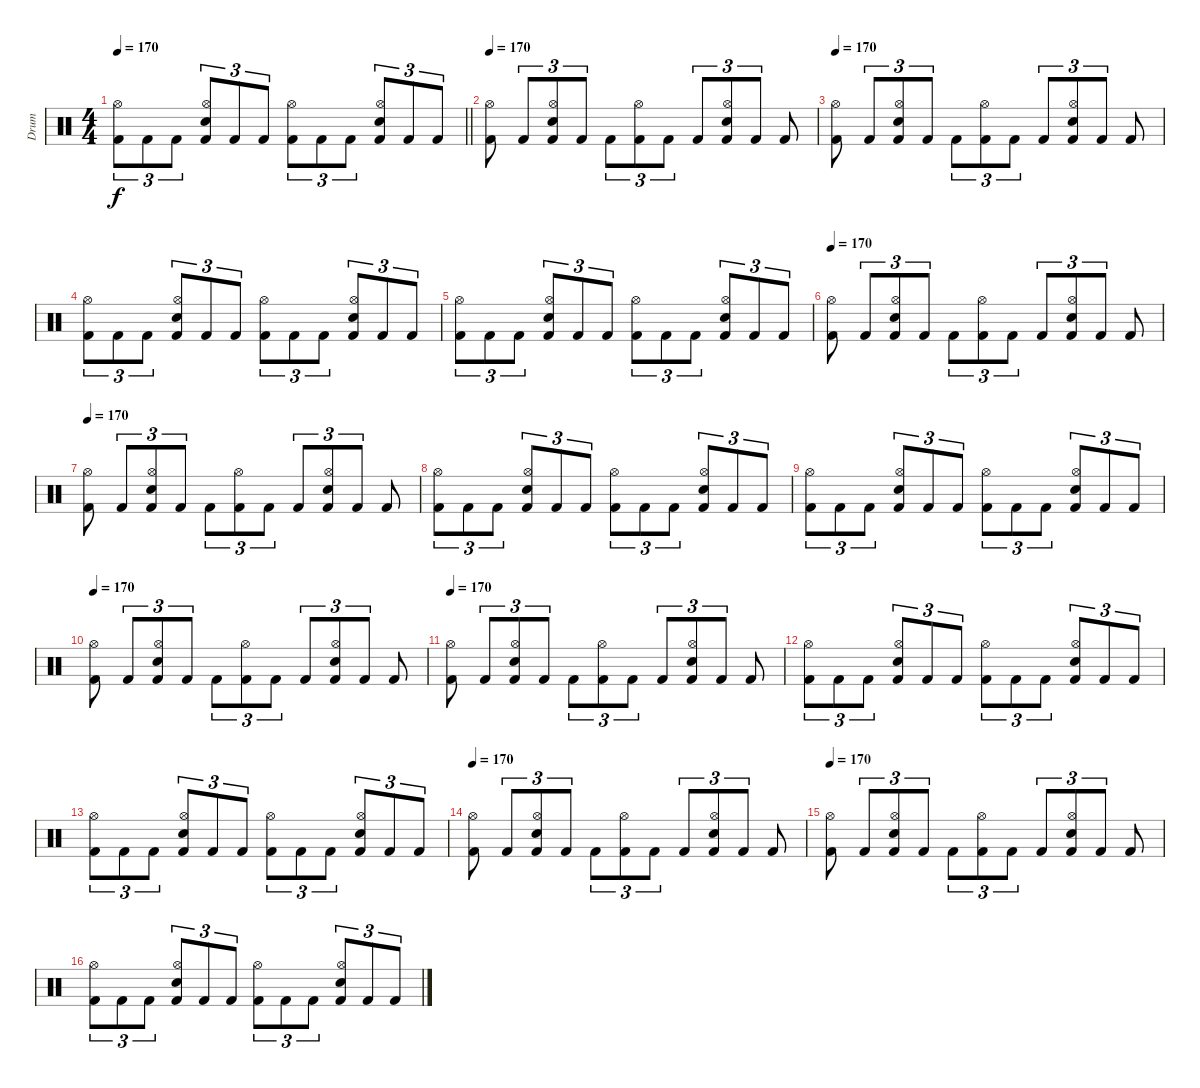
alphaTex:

\track ("Drum" "Drum") {instrument percussion}
\staff {score}
\articulation defaults
\ts (4 4)
\tempo 170
\clef neutral
\barLineRight lightlight
\ks c
("Kick (hit) 2" "Hi-Hat (open)").8{tu (3 2) dy f} "Kick (hit) 2".8{tu (3 2)} "Kick (hit) 2".8{tu (3 2)} ("Kick (hit) 2" "Electric Snare (hit)" "Hi-Hat (open)").8{tu (3 2)} "Kick (hit) 2".8{tu (3 2)} "Kick (hit) 2".8{tu (3 2)} ("Kick (hit) 2" "Hi-Hat (open)").8{tu (3 2)} "Kick (hit) 2".8{tu (3 2)} "Kick (hit) 2".8{tu (3 2)} ("Kick (hit) 2" "Electric Snare (hit)" "Hi-Hat (open)").8{tu (3 2)} "Kick (hit) 2".8{tu (3 2)} "Kick (hit) 2".8{tu (3 2)} |
\tempo 170
("Kick (hit) 2" "Hi-Hat (open)").8 "Kick (hit) 2".8{tu (3 2)} ("Kick (hit) 2" "Electric Snare (hit)" "Hi-Hat (open)").8{tu (3 2)} "Kick (hit) 2".8{tu (3 2)} "Kick (hit) 2".8{tu (3 2)} ("Kick (hit) 2" "Hi-Hat (open)").8{tu (3 2)} "Kick (hit) 2".8{tu (3 2)} "Kick (hit) 2".8{tu (3 2)} ("Kick (hit) 2" "Electric Snare (hit)" "Hi-Hat (open)").8{tu (3 2)} "Kick (hit) 2".8{tu (3 2)} "Kick (hit) 2".8 |
\tempo 170
("Kick (hit) 2" "Hi-Hat (open)").8 "Kick (hit) 2".8{tu (3 2)} ("Kick (hit) 2" "Electric Snare (hit)" "Hi-Hat (open)").8{tu (3 2)} "Kick (hit) 2".8{tu (3 2)} "Kick (hit) 2".8{tu (3 2)} ("Kick (hit) 2" "Hi-Hat (open)").8{tu (3 2)} "Kick (hit) 2".8{tu (3 2)} "Kick (hit) 2".8{tu (3 2)} ("Kick (hit) 2" "Electric Snare (hit)" "Hi-Hat (open)").8{tu (3 2)} "Kick (hit) 2".8{tu (3 2)} "Kick (hit) 2".8 |
("Kick (hit) 2" "Hi-Hat (open)").8{tu (3 2)} "Kick (hit) 2".8{tu (3 2)} "Kick (hit) 2".8{tu (3 2)} ("Kick (hit) 2" "Electric Snare (hit)" "Hi-Hat (open)").8{tu (3 2)} "Kick (hit) 2".8{tu (3 2)} "Kick (hit) 2".8{tu (3 2)} ("Kick (hit) 2" "Hi-Hat (open)").8{tu (3 2)} "Kick (hit) 2".8{tu (3 2)} "Kick (hit) 2".8{tu (3 2)} ("Kick (hit) 2" "Electric Snare (hit)" "Hi-Hat (open)").8{tu (3 2)} "Kick (hit) 2".8{tu (3 2)} "Kick (hit) 2".8{tu (3 2)} |
("Kick (hit) 2" "Hi-Hat (open)").8{tu (3 2)} "Kick (hit) 2".8{tu (3 2)} "Kick (hit) 2".8{tu (3 2)} ("Kick (hit) 2" "Electric Snare (hit)" "Hi-Hat (open)").8{tu (3 2)} "Kick (hit) 2".8{tu (3 2)} "Kick (hit) 2".8{tu (3 2)} ("Kick (hit) 2" "Hi-Hat (open)").8{tu (3 2)} "Kick (hit) 2".8{tu (3 2)} "Kick (hit) 2".8{tu (3 2)} ("Kick (hit) 2" "Electric Snare (hit)" "Hi-Hat (open)").8{tu (3 2)} "Kick (hit) 2".8{tu (3 2)} "Kick (hit) 2".8{tu (3 2)} |
\tempo 170
("Kick (hit) 2" "Hi-Hat (open)").8 "Kick (hit) 2".8{tu (3 2)} ("Kick (hit) 2" "Electric Snare (hit)" "Hi-Hat (open)").8{tu (3 2)} "Kick (hit) 2".8{tu (3 2)} "Kick (hit) 2".8{tu (3 2)} ("Kick (hit) 2" "Hi-Hat (open)").8{tu (3 2)} "Kick (hit) 2".8{tu (3 2)} "Kick (hit) 2".8{tu (3 2)} ("Kick (hit) 2" "Electric Snare (hit)" "Hi-Hat (open)").8{tu (3 2)} "Kick (hit) 2".8{tu (3 2)} "Kick (hit) 2".8 |
\tempo 170
("Kick (hit) 2" "Hi-Hat (open)").8 "Kick (hit) 2".8{tu (3 2)} ("Kick (hit) 2" "Electric Snare (hit)" "Hi-Hat (open)").8{tu (3 2)} "Kick (hit) 2".8{tu (3 2)} "Kick (hit) 2".8{tu (3 2)} ("Kick (hit) 2" "Hi-Hat (open)").8{tu (3 2)} "Kick (hit) 2".8{tu (3 2)} "Kick (hit) 2".8{tu (3 2)} ("Kick (hit) 2" "Electric Snare (hit)" "Hi-Hat (open)").8{tu (3 2)} "Kick (hit) 2".8{tu (3 2)} "Kick (hit) 2".8 |
("Kick (hit) 2" "Hi-Hat (open)").8{tu (3 2)} "Kick (hit) 2".8{tu (3 2)} "Kick (hit) 2".8{tu (3 2)} ("Kick (hit) 2" "Electric Snare (hit)" "Hi-Hat (open)").8{tu (3 2)} "Kick (hit) 2".8{tu (3 2)} "Kick (hit) 2".8{tu (3 2)} ("Kick (hit) 2" "Hi-Hat (open)").8{tu (3 2)} "Kick (hit) 2".8{tu (3 2)} "Kick (hit) 2".8{tu (3 2)} ("Kick (hit) 2" "Electric Snare (hit)" "Hi-Hat (open)").8{tu (3 2)} "Kick (hit) 2".8{tu (3 2)} "Kick (hit) 2".8{tu (3 2)} |
("Kick (hit) 2" "Hi-Hat (open)").8{tu (3 2)} "Kick (hit) 2".8{tu (3 2)} "Kick (hit) 2".8{tu (3 2)} ("Kick (hit) 2" "Electric Snare (hit)" "Hi-Hat (open)").8{tu (3 2)} "Kick (hit) 2".8{tu (3 2)} "Kick (hit) 2".8{tu (3 2)} ("Kick (hit) 2" "Hi-Hat (open)").8{tu (3 2)} "Kick (hit) 2".8{tu (3 2)} "Kick (hit) 2".8{tu (3 2)} ("Kick (hit) 2" "Electric Snare (hit)" "Hi-Hat (open)").8{tu (3 2)} "Kick (hit) 2".8{tu (3 2)} "Kick (hit) 2".8{tu (3 2)} |
\tempo 170
("Kick (hit) 2" "Hi-Hat (open)").8 "Kick (hit) 2".8{tu (3 2)} ("Kick (hit) 2" "Electric Snare (hit)" "Hi-Hat (open)").8{tu (3 2)} "Kick (hit) 2".8{tu (3 2)} "Kick (hit) 2".8{tu (3 2)} ("Kick (hit) 2" "Hi-Hat (open)").8{tu (3 2)} "Kick (hit) 2".8{tu (3 2)} "Kick (hit) 2".8{tu (3 2)} ("Kick (hit) 2" "Electric Snare (hit)" "Hi-Hat (open)").8{tu (3 2)} "Kick (hit) 2".8{tu (3 2)} "Kick (hit) 2".8 |
\tempo 170
("Kick (hit) 2" "Hi-Hat (open)").8 "Kick (hit) 2".8{tu (3 2)} ("Kick (hit) 2" "Electric Snare (hit)" "Hi-Hat (open)").8{tu (3 2)} "Kick (hit) 2".8{tu (3 2)} "Kick (hit) 2".8{tu (3 2)} ("Kick (hit) 2" "Hi-Hat (open)").8{tu (3 2)} "Kick (hit) 2".8{tu (3 2)} "Kick (hit) 2".8{tu (3 2)} ("Kick (hit) 2" "Electric Snare (hit)" "Hi-Hat (open)").8{tu (3 2)} "Kick (hit) 2".8{tu (3 2)} "Kick (hit) 2".8 |
("Kick (hit) 2" "Hi-Hat (open)").8{tu (3 2)} "Kick (hit) 2".8{tu (3 2)} "Kick (hit) 2".8{tu (3 2)} ("Kick (hit) 2" "Electric Snare (hit)" "Hi-Hat (open)").8{tu (3 2)} "Kick (hit) 2".8{tu (3 2)} "Kick (hit) 2".8{tu (3 2)} ("Kick (hit) 2" "Hi-Hat (open)").8{tu (3 2)} "Kick (hit) 2".8{tu (3 2)} "Kick (hit) 2".8{tu (3 2)} ("Kick (hit) 2" "Electric Snare (hit)" "Hi-Hat (open)").8{tu (3 2)} "Kick (hit) 2".8{tu (3 2)} "Kick (hit) 2".8{tu (3 2)} |
("Kick (hit) 2" "Hi-Hat (open)").8{tu (3 2)} "Kick (hit) 2".8{tu (3 2)} "Kick (hit) 2".8{tu (3 2)} ("Kick (hit) 2" "Electric Snare (hit)" "Hi-Hat (open)").8{tu (3 2)} "Kick (hit) 2".8{tu (3 2)} "Kick (hit) 2".8{tu (3 2)} ("Kick (hit) 2" "Hi-Hat (open)").8{tu (3 2)} "Kick (hit) 2".8{tu (3 2)} "Kick (hit) 2".8{tu (3 2)} ("Kick (hit) 2" "Electric Snare (hit)" "Hi-Hat (open)").8{tu (3 2)} "Kick (hit) 2".8{tu (3 2)} "Kick (hit) 2".8{tu (3 2)} |
\tempo 170
("Kick (hit) 2" "Hi-Hat (open)").8 "Kick (hit) 2".8{tu (3 2)} ("Kick (hit) 2" "Electric Snare (hit)" "Hi-Hat (open)").8{tu (3 2)} "Kick (hit) 2".8{tu (3 2)} "Kick (hit) 2".8{tu (3 2)} ("Kick (hit) 2" "Hi-Hat (open)").8{tu (3 2)} "Kick (hit) 2".8{tu (3 2)} "Kick (hit) 2".8{tu (3 2)} ("Kick (hit) 2" "Electric Snare (hit)" "Hi-Hat (open)").8{tu (3 2)} "Kick (hit) 2".8{tu (3 2)} "Kick (hit) 2".8 |
\tempo 170
("Kick (hit) 2" "Hi-Hat (open)").8 "Kick (hit) 2".8{tu (3 2)} ("Kick (hit) 2" "Electric Snare (hit)" "Hi-Hat (open)").8{tu (3 2)} "Kick (hit) 2".8{tu (3 2)} "Kick (hit) 2".8{tu (3 2)} ("Kick (hit) 2" "Hi-Hat (open)").8{tu (3 2)} "Kick (hit) 2".8{tu (3 2)} "Kick (hit) 2".8{tu (3 2)} ("Kick (hit) 2" "Electric Snare (hit)" "Hi-Hat (open)").8{tu (3 2)} "Kick (hit) 2".8{tu (3 2)} "Kick (hit) 2".8 |
("Kick (hit) 2" "Hi-Hat (open)").8{tu (3 2)} "Kick (hit) 2".8{tu (3 2)} "Kick (hit) 2".8{tu (3 2)} ("Kick (hit) 2" "Electric Snare (hit)" "Hi-Hat (open)").8{tu (3 2)} "Kick (hit) 2".8{tu (3 2)} "Kick (hit) 2".8{tu (3 2)} ("Kick (hit) 2" "Hi-Hat (open)").8{tu (3 2)} "Kick (hit) 2".8{tu (3 2)} "Kick (hit) 2".8{tu (3 2)} ("Kick (hit) 2" "Electric Snare (hit)" "Hi-Hat (open)").8{tu (3 2)} "Kick (hit) 2".8{tu (3 2)} "Kick (hit) 2".8{tu (3 2)}
